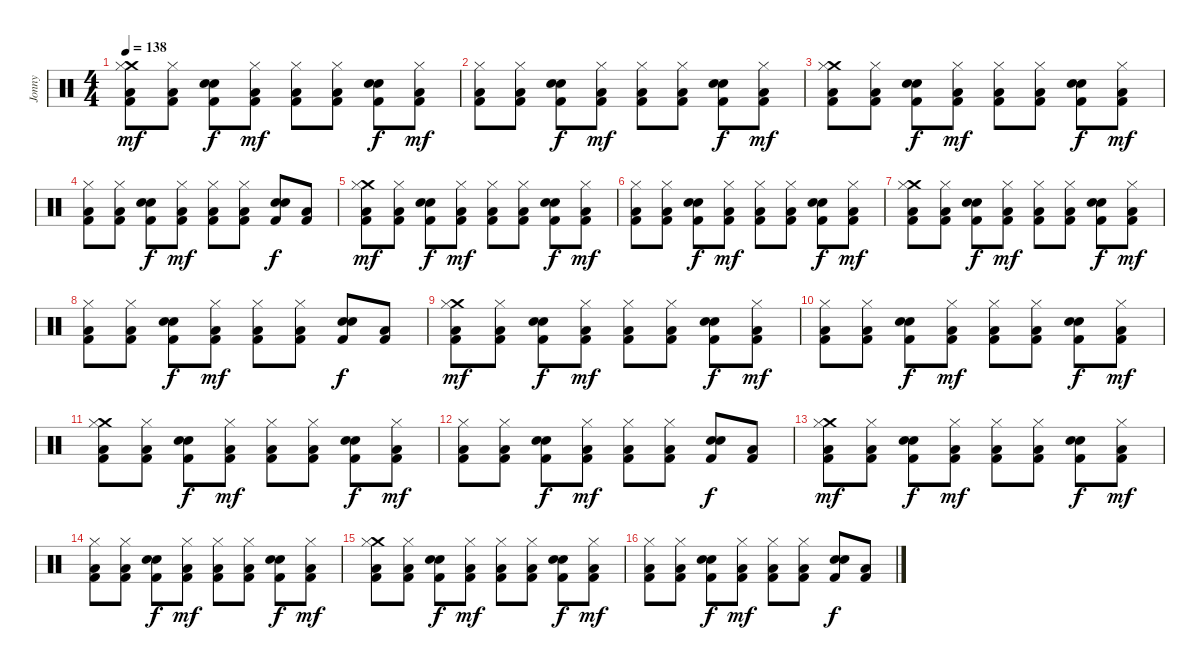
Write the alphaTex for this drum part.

\track ("Jonny" "Jonny") {instrument percussion}
\staff {score}
\articulation defaults
\ts (4 4)
\tempo 138
\clef neutral
\ks c
("Crash medium (hit)" "Hi-Hat (closed)" "Low Floor Tom (hit)" "Kick (hit) 2").8{dy mf} ("Hi-Hat (closed)" "Low Floor Tom (hit)" "Kick (hit) 2").8 ("Electric Snare (hit)" "Electric Snare (hit)" "Kick (hit) 2").8{dy f} ("Hi-Hat (closed)" "Low Floor Tom (hit)" "Kick (hit) 2").8{dy mf} ("Hi-Hat (closed)" "Low Floor Tom (hit)" "Kick (hit) 2").8 ("Hi-Hat (closed)" "Low Floor Tom (hit)" "Kick (hit) 2").8 ("Electric Snare (hit)" "Electric Snare (hit)" "Kick (hit) 2").8{dy f} ("Hi-Hat (closed)" "Low Floor Tom (hit)" "Kick (hit) 2").8{dy mf} |
("Hi-Hat (closed)" "Low Floor Tom (hit)" "Kick (hit) 2").8 ("Hi-Hat (closed)" "Low Floor Tom (hit)" "Kick (hit) 2").8 ("Electric Snare (hit)" "Electric Snare (hit)" "Kick (hit) 2").8{dy f} ("Hi-Hat (closed)" "Low Floor Tom (hit)" "Kick (hit) 2").8{dy mf} ("Hi-Hat (closed)" "Low Floor Tom (hit)" "Kick (hit) 2").8 ("Hi-Hat (closed)" "Low Floor Tom (hit)" "Kick (hit) 2").8 ("Electric Snare (hit)" "Electric Snare (hit)" "Kick (hit) 2").8{dy f} ("Hi-Hat (closed)" "Low Floor Tom (hit)" "Kick (hit) 2").8{dy mf} |
("Crash medium (hit)" "Hi-Hat (closed)" "Low Floor Tom (hit)" "Kick (hit) 2").8 ("Hi-Hat (closed)" "Low Floor Tom (hit)" "Kick (hit) 2").8 ("Electric Snare (hit)" "Electric Snare (hit)" "Kick (hit) 2").8{dy f} ("Hi-Hat (closed)" "Low Floor Tom (hit)" "Kick (hit) 2").8{dy mf} ("Hi-Hat (closed)" "Low Floor Tom (hit)" "Kick (hit) 2").8 ("Hi-Hat (closed)" "Low Floor Tom (hit)" "Kick (hit) 2").8 ("Electric Snare (hit)" "Electric Snare (hit)" "Kick (hit) 2").8{dy f} ("Hi-Hat (closed)" "Low Floor Tom (hit)" "Kick (hit) 2").8{dy mf} |
("Hi-Hat (closed)" "Low Floor Tom (hit)" "Kick (hit) 2").8 ("Hi-Hat (closed)" "Low Floor Tom (hit)" "Kick (hit) 2").8 ("Electric Snare (hit)" "Electric Snare (hit)" "Kick (hit) 2").8{dy f} ("Hi-Hat (closed)" "Low Floor Tom (hit)" "Kick (hit) 2").8{dy mf} ("Hi-Hat (closed)" "Low Floor Tom (hit)" "Kick (hit) 2").8 ("Hi-Hat (closed)" "Low Floor Tom (hit)" "Kick (hit) 2").8 ("Electric Snare (hit)" "Electric Snare (hit)" "Kick (hit) 2").8{dy f} ("Low Floor Tom (hit)" "Kick (hit) 2").8 |
("Crash medium (hit)" "Hi-Hat (closed)" "Low Floor Tom (hit)" "Kick (hit) 2").8{dy mf} ("Hi-Hat (closed)" "Low Floor Tom (hit)" "Kick (hit) 2").8 ("Electric Snare (hit)" "Electric Snare (hit)" "Kick (hit) 2").8{dy f} ("Hi-Hat (closed)" "Low Floor Tom (hit)" "Kick (hit) 2").8{dy mf} ("Hi-Hat (closed)" "Low Floor Tom (hit)" "Kick (hit) 2").8 ("Hi-Hat (closed)" "Low Floor Tom (hit)" "Kick (hit) 2").8 ("Electric Snare (hit)" "Electric Snare (hit)" "Kick (hit) 2").8{dy f} ("Hi-Hat (closed)" "Low Floor Tom (hit)" "Kick (hit) 2").8{dy mf} |
("Hi-Hat (closed)" "Low Floor Tom (hit)" "Kick (hit) 2").8 ("Hi-Hat (closed)" "Low Floor Tom (hit)" "Kick (hit) 2").8 ("Electric Snare (hit)" "Electric Snare (hit)" "Kick (hit) 2").8{dy f} ("Hi-Hat (closed)" "Low Floor Tom (hit)" "Kick (hit) 2").8{dy mf} ("Hi-Hat (closed)" "Low Floor Tom (hit)" "Kick (hit) 2").8 ("Hi-Hat (closed)" "Low Floor Tom (hit)" "Kick (hit) 2").8 ("Electric Snare (hit)" "Electric Snare (hit)" "Kick (hit) 2").8{dy f} ("Hi-Hat (closed)" "Low Floor Tom (hit)" "Kick (hit) 2").8{dy mf} |
("Crash medium (hit)" "Hi-Hat (closed)" "Low Floor Tom (hit)" "Kick (hit) 2").8 ("Hi-Hat (closed)" "Low Floor Tom (hit)" "Kick (hit) 2").8 ("Electric Snare (hit)" "Electric Snare (hit)" "Kick (hit) 2").8{dy f} ("Hi-Hat (closed)" "Low Floor Tom (hit)" "Kick (hit) 2").8{dy mf} ("Hi-Hat (closed)" "Low Floor Tom (hit)" "Kick (hit) 2").8 ("Hi-Hat (closed)" "Low Floor Tom (hit)" "Kick (hit) 2").8 ("Electric Snare (hit)" "Electric Snare (hit)" "Kick (hit) 2").8{dy f} ("Hi-Hat (closed)" "Low Floor Tom (hit)" "Kick (hit) 2").8{dy mf} |
("Hi-Hat (closed)" "Low Floor Tom (hit)" "Kick (hit) 2").8 ("Hi-Hat (closed)" "Low Floor Tom (hit)" "Kick (hit) 2").8 ("Electric Snare (hit)" "Electric Snare (hit)" "Kick (hit) 2").8{dy f} ("Hi-Hat (closed)" "Low Floor Tom (hit)" "Kick (hit) 2").8{dy mf} ("Hi-Hat (closed)" "Low Floor Tom (hit)" "Kick (hit) 2").8 ("Hi-Hat (closed)" "Low Floor Tom (hit)" "Kick (hit) 2").8 ("Electric Snare (hit)" "Electric Snare (hit)" "Kick (hit) 2").8{dy f} ("Low Floor Tom (hit)" "Kick (hit) 2").8 |
("Crash medium (hit)" "Hi-Hat (closed)" "Low Floor Tom (hit)" "Kick (hit) 2").8{dy mf} ("Hi-Hat (closed)" "Low Floor Tom (hit)" "Kick (hit) 2").8 ("Electric Snare (hit)" "Electric Snare (hit)" "Kick (hit) 2").8{dy f} ("Hi-Hat (closed)" "Low Floor Tom (hit)" "Kick (hit) 2").8{dy mf} ("Hi-Hat (closed)" "Low Floor Tom (hit)" "Kick (hit) 2").8 ("Hi-Hat (closed)" "Low Floor Tom (hit)" "Kick (hit) 2").8 ("Electric Snare (hit)" "Electric Snare (hit)" "Kick (hit) 2").8{dy f} ("Hi-Hat (closed)" "Low Floor Tom (hit)" "Kick (hit) 2").8{dy mf} |
("Hi-Hat (closed)" "Low Floor Tom (hit)" "Kick (hit) 2").8 ("Hi-Hat (closed)" "Low Floor Tom (hit)" "Kick (hit) 2").8 ("Electric Snare (hit)" "Electric Snare (hit)" "Kick (hit) 2").8{dy f} ("Hi-Hat (closed)" "Low Floor Tom (hit)" "Kick (hit) 2").8{dy mf} ("Hi-Hat (closed)" "Low Floor Tom (hit)" "Kick (hit) 2").8 ("Hi-Hat (closed)" "Low Floor Tom (hit)" "Kick (hit) 2").8 ("Electric Snare (hit)" "Electric Snare (hit)" "Kick (hit) 2").8{dy f} ("Hi-Hat (closed)" "Low Floor Tom (hit)" "Kick (hit) 2").8{dy mf} |
("Crash medium (hit)" "Hi-Hat (closed)" "Low Floor Tom (hit)" "Kick (hit) 2").8 ("Hi-Hat (closed)" "Low Floor Tom (hit)" "Kick (hit) 2").8 ("Electric Snare (hit)" "Electric Snare (hit)" "Kick (hit) 2").8{dy f} ("Hi-Hat (closed)" "Low Floor Tom (hit)" "Kick (hit) 2").8{dy mf} ("Hi-Hat (closed)" "Low Floor Tom (hit)" "Kick (hit) 2").8 ("Hi-Hat (closed)" "Low Floor Tom (hit)" "Kick (hit) 2").8 ("Electric Snare (hit)" "Electric Snare (hit)" "Kick (hit) 2").8{dy f} ("Hi-Hat (closed)" "Low Floor Tom (hit)" "Kick (hit) 2").8{dy mf} |
("Hi-Hat (closed)" "Low Floor Tom (hit)" "Kick (hit) 2").8 ("Hi-Hat (closed)" "Low Floor Tom (hit)" "Kick (hit) 2").8 ("Electric Snare (hit)" "Electric Snare (hit)" "Kick (hit) 2").8{dy f} ("Hi-Hat (closed)" "Low Floor Tom (hit)" "Kick (hit) 2").8{dy mf} ("Hi-Hat (closed)" "Low Floor Tom (hit)" "Kick (hit) 2").8 ("Hi-Hat (closed)" "Low Floor Tom (hit)" "Kick (hit) 2").8 ("Electric Snare (hit)" "Electric Snare (hit)" "Kick (hit) 2").8{dy f} ("Low Floor Tom (hit)" "Kick (hit) 2").8 |
("Crash medium (hit)" "Hi-Hat (closed)" "Low Floor Tom (hit)" "Kick (hit) 2").8{dy mf} ("Hi-Hat (closed)" "Low Floor Tom (hit)" "Kick (hit) 2").8 ("Electric Snare (hit)" "Electric Snare (hit)" "Kick (hit) 2").8{dy f} ("Hi-Hat (closed)" "Low Floor Tom (hit)" "Kick (hit) 2").8{dy mf} ("Hi-Hat (closed)" "Low Floor Tom (hit)" "Kick (hit) 2").8 ("Hi-Hat (closed)" "Low Floor Tom (hit)" "Kick (hit) 2").8 ("Electric Snare (hit)" "Electric Snare (hit)" "Kick (hit) 2").8{dy f} ("Hi-Hat (closed)" "Low Floor Tom (hit)" "Kick (hit) 2").8{dy mf} |
("Hi-Hat (closed)" "Low Floor Tom (hit)" "Kick (hit) 2").8 ("Hi-Hat (closed)" "Low Floor Tom (hit)" "Kick (hit) 2").8 ("Electric Snare (hit)" "Electric Snare (hit)" "Kick (hit) 2").8{dy f} ("Hi-Hat (closed)" "Low Floor Tom (hit)" "Kick (hit) 2").8{dy mf} ("Hi-Hat (closed)" "Low Floor Tom (hit)" "Kick (hit) 2").8 ("Hi-Hat (closed)" "Low Floor Tom (hit)" "Kick (hit) 2").8 ("Electric Snare (hit)" "Electric Snare (hit)" "Kick (hit) 2").8{dy f} ("Hi-Hat (closed)" "Low Floor Tom (hit)" "Kick (hit) 2").8{dy mf} |
("Crash medium (hit)" "Hi-Hat (closed)" "Low Floor Tom (hit)" "Kick (hit) 2").8 ("Hi-Hat (closed)" "Low Floor Tom (hit)" "Kick (hit) 2").8 ("Electric Snare (hit)" "Electric Snare (hit)" "Kick (hit) 2").8{dy f} ("Hi-Hat (closed)" "Low Floor Tom (hit)" "Kick (hit) 2").8{dy mf} ("Hi-Hat (closed)" "Low Floor Tom (hit)" "Kick (hit) 2").8 ("Hi-Hat (closed)" "Low Floor Tom (hit)" "Kick (hit) 2").8 ("Electric Snare (hit)" "Electric Snare (hit)" "Kick (hit) 2").8{dy f} ("Hi-Hat (closed)" "Low Floor Tom (hit)" "Kick (hit) 2").8{dy mf} |
("Hi-Hat (closed)" "Low Floor Tom (hit)" "Kick (hit) 2").8 ("Hi-Hat (closed)" "Low Floor Tom (hit)" "Kick (hit) 2").8 ("Electric Snare (hit)" "Electric Snare (hit)" "Kick (hit) 2").8{dy f} ("Hi-Hat (closed)" "Low Floor Tom (hit)" "Kick (hit) 2").8{dy mf} ("Hi-Hat (closed)" "Low Floor Tom (hit)" "Kick (hit) 2").8 ("Hi-Hat (closed)" "Low Floor Tom (hit)" "Kick (hit) 2").8 ("Electric Snare (hit)" "Electric Snare (hit)" "Kick (hit) 2").8{dy f} ("Low Floor Tom (hit)" "Kick (hit) 2").8
